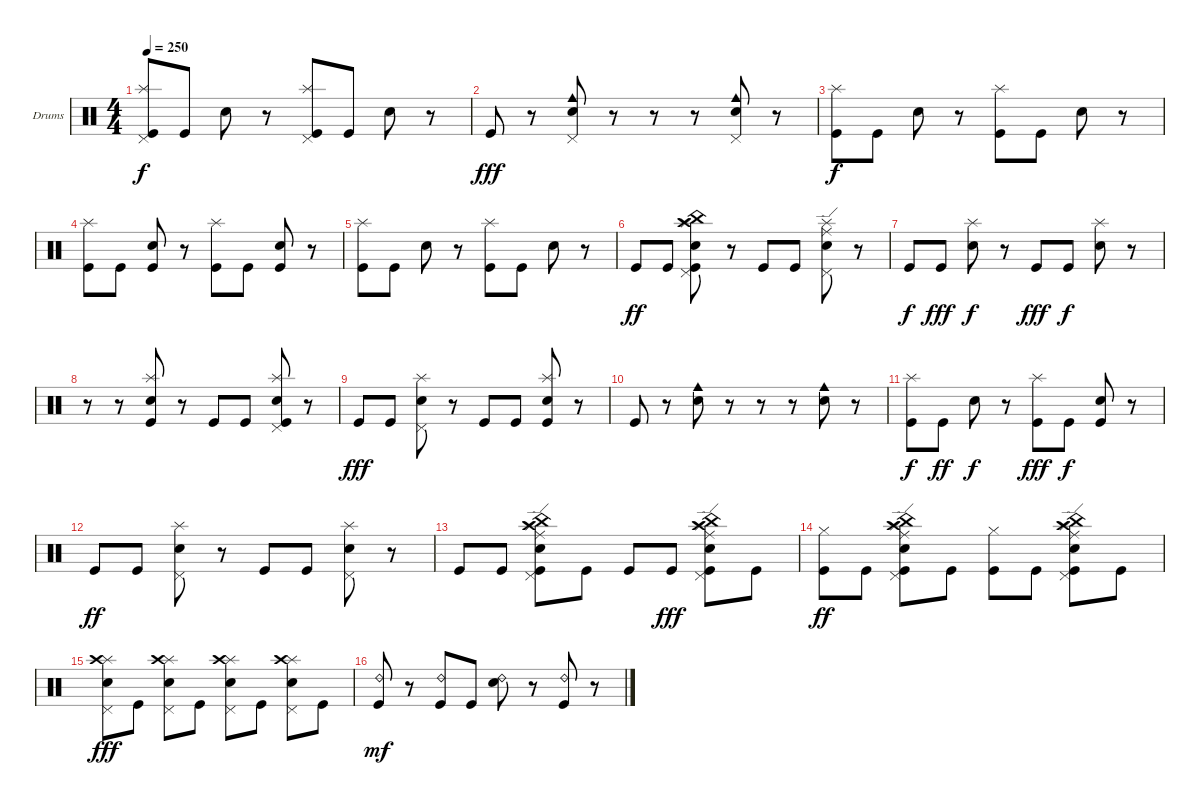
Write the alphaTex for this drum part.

\defaultSystemsLayout 4
\bracketExtendMode groupsimilarinstruments
\firstSystemTrackNameOrientation horizontal
\otherSystemsTrackNameOrientation horizontal
\track ("Драмки" "Drums") {instrument percussion}
\staff {score}
\articulation defaults
\ts (4 4)
\tempo 250
\clef neutral
\ks c
("Kick (hit)" "Splash (hit)" "Pedal Hi-Hat (hit)").8{dy f} "Kick (hit)".8 "Snare (hit) 2".8 r.8 ("Kick (hit)" "Splash (hit)" "Pedal Hi-Hat (hit)").8 "Kick (hit)".8 "Snare (hit) 2".8 r.8 |
"Kick (hit)".8{dy fff} r.8 ("Snare (hit) 2" "Cowbell medium (hit)" "Pedal Hi-Hat (hit)").8 r.8 r.8 r.8 ("Snare (hit) 2" "Cowbell medium (hit)" "Pedal Hi-Hat (hit)").8 r.8 |
("Kick (hit)" "Splash (hit)").8{dy f} "Kick (hit)".8 "Snare (hit) 2".8 r.8 ("Kick (hit)" "Splash (hit)").8 "Kick (hit)".8 "Snare (hit) 2".8 r.8 |
("Kick (hit)" "Splash (hit)").8 "Kick (hit)".8 ("Snare (hit) 2" "Kick (hit)").8 r.8 ("Kick (hit)" "Splash (hit)").8 "Kick (hit)".8 ("Snare (hit) 2" "Kick (hit)").8 r.8 |
("Kick (hit)" "Splash (hit)").8 "Kick (hit)".8 "Snare (hit) 2".8 r.8 ("Kick (hit)" "Splash (hit)").8 "Kick (hit)".8 "Snare (hit) 2".8 r.8 |
"Kick (hit)".8{dy ff} "Kick (hit)".8 ("Kick (hit)" "Snare (hit) 2" "Pedal Hi-Hat (hit)" "Splash (hit)" "China (hit)" "Crash high (hit)").8 r.8 "Kick (hit)".8 "Kick (hit)".8 ("Splash (hit)" "Pedal Hi-Hat (hit)" "Snare (hit) 2" "Ride (edge)").8 r.8 |
"Kick (hit)".8{dy f} "Kick (hit)".8{dy fff} ("Snare (hit) 2" "Splash (hit)").8{dy f} r.8 "Kick (hit)".8{dy fff} "Kick (hit)".8{dy f} ("Snare (hit) 2" "Splash (hit)").8 r.8 |
r.8 r.8 ("Snare (hit) 2" "Kick (hit)" "Splash (hit)").8 r.8 "Kick (hit)".8 "Kick (hit)".8 ("Snare (hit) 2" "Kick (hit)" "Splash (hit)" "Pedal Hi-Hat (hit)").8 r.8 |
"Kick (hit)".8{dy fff} "Kick (hit)".8 ("Snare (hit) 2" "Splash (hit)" "Pedal Hi-Hat (hit)").8 r.8 "Kick (hit)".8 "Kick (hit)".8 ("Snare (hit) 2" "Splash (hit)" "Kick (hit)").8 r.8 |
"Kick (hit)".8 r.8 ("Snare (hit) 2" "Cowbell medium (hit)").8 r.8 r.8 r.8 ("Snare (hit) 2" "Cowbell medium (hit)").8 r.8 |
("Kick (hit)" "Splash (hit)").8{dy f} "Kick (hit)".8{dy ff} "Snare (hit) 2".8{dy f} r.8 ("Kick (hit)" "Splash (hit)").8{dy fff} "Kick (hit)".8{dy f} ("Kick (hit)" "Snare (hit) 2").8 r.8 |
"Kick (hit)".8{dy ff} "Kick (hit)".8 ("Snare (hit) 2" "Splash (hit)" "Pedal Hi-Hat (hit)").8 r.8 "Kick (hit)".8 "Kick (hit)".8 ("Snare (hit) 2" "Splash (hit)" "Pedal Hi-Hat (hit)").8 r.8 |
"Kick (hit)".8 "Kick (hit)".8 ("Snare (hit) 2" "Splash (hit)" "Pedal Hi-Hat (hit)" "Kick (hit)" "Crash high (hit)" "China (hit)" "Ride (edge)").8 "Kick (hit)".8 "Kick (hit)".8 "Kick (hit)".8{dy fff} ("Snare (hit) 2" "Splash (hit)" "Pedal Hi-Hat (hit)" "Kick (hit)" "Crash high (hit)" "China (hit)" "Ride (edge)").8 "Kick (hit)".8 |
("Kick (hit)" "Hi-Hat (closed)").8{dy ff} "Kick (hit)".8 ("Kick (hit)" "Snare (hit) 2" "Pedal Hi-Hat (hit)" "Splash (hit)" "Crash high (hit)" "China (hit)" "Ride (edge)").8 "Kick (hit)".8 ("Kick (hit)" "Hi-Hat (closed)").8 "Kick (hit)".8 ("Kick (hit)" "Splash (hit)" "Pedal Hi-Hat (hit)" "Snare (hit) 2" "China (hit)" "Crash high (hit)" "Ride (edge)").8 "Kick (hit)".8 |
("Snare (hit) 2" "Splash (hit)" "Pedal Hi-Hat (hit)" "Crash high (hit)").8{dy fff} "Kick (hit)".8 ("Snare (hit) 2" "Splash (hit)" "Pedal Hi-Hat (hit)" "Crash high (hit)").8 "Kick (hit)".8 ("Snare (hit) 2" "Splash (hit)" "Pedal Hi-Hat (hit)" "Crash high (hit)").8 "Kick (hit)".8 ("Snare (hit) 2" "Splash (hit)" "Pedal Hi-Hat (hit)" "Crash high (hit)").8 "Kick (hit)".8 |
("Kick (hit)" "Ride (bell) 2").8{dy mf} r.8 ("Kick (hit)" "Ride (bell) 2").8 "Kick (hit)".8 ("Snare (hit) 2" "Ride (bell) 2").8 r.8 ("Kick (hit)" "Ride (bell) 2").8 r.8
